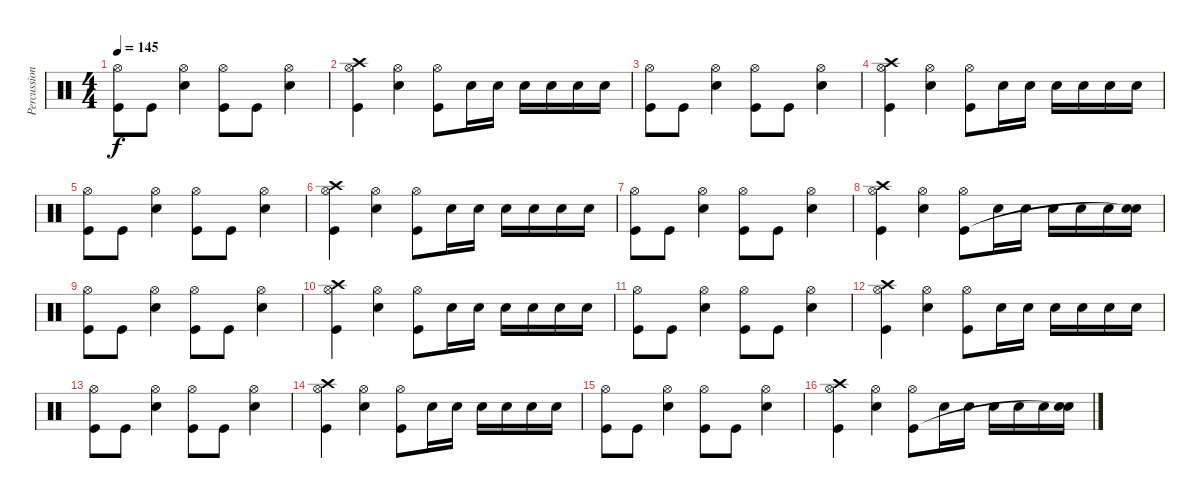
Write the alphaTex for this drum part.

\track ("Percussion" "Percussion") {instrument percussion}
\staff {score}
\articulation defaults
\ts (4 4)
\tempo 145
\clef neutral
\ks c
("Hi-Hat (open)" "Kick (hit)").8{dy f} "Kick (hit)".8 ("Hi-Hat (open)" "Snare (hit) 2").4 ("Hi-Hat (open)" "Kick (hit)").8 "Kick (hit)".8 ("Hi-Hat (open)" "Snare (hit) 2").4 |
("Kick (hit)" "Hi-Hat (open)" "Crash high (hit)").4 ("Hi-Hat (open)" "Snare (hit) 2").4 ("Hi-Hat (open)" "Kick (hit)").8 "Snare (hit) 2".16 "Snare (hit) 2".16 "Snare (hit) 2".16 "Snare (hit) 2".16 "Snare (hit) 2".16 "Snare (hit) 2".16 |
("Hi-Hat (open)" "Kick (hit)").8 "Kick (hit)".8 ("Hi-Hat (open)" "Snare (hit) 2").4 ("Hi-Hat (open)" "Kick (hit)").8 "Kick (hit)".8 ("Hi-Hat (open)" "Snare (hit) 2").4 |
("Kick (hit)" "Hi-Hat (open)" "Crash high (hit)").4 ("Hi-Hat (open)" "Snare (hit) 2").4 ("Hi-Hat (open)" "Kick (hit)").8 "Snare (hit) 2".16 "Snare (hit) 2".16 "Snare (hit) 2".16 "Snare (hit) 2".16 "Snare (hit) 2".16 "Snare (hit) 2".16 |
("Hi-Hat (open)" "Kick (hit)").8 "Kick (hit)".8 ("Hi-Hat (open)" "Snare (hit) 2").4 ("Hi-Hat (open)" "Kick (hit)").8 "Kick (hit)".8 ("Hi-Hat (open)" "Snare (hit) 2").4 |
("Kick (hit)" "Hi-Hat (open)" "Crash high (hit)").4 ("Hi-Hat (open)" "Snare (hit) 2").4 ("Hi-Hat (open)" "Kick (hit)").8 "Snare (hit) 2".16 "Snare (hit) 2".16 "Snare (hit) 2".16 "Snare (hit) 2".16 "Snare (hit) 2".16 "Snare (hit) 2".16 |
("Hi-Hat (open)" "Kick (hit)").8 "Kick (hit)".8 ("Hi-Hat (open)" "Snare (hit) 2").4 ("Hi-Hat (open)" "Kick (hit)").8 "Kick (hit)".8 ("Hi-Hat (open)" "Snare (hit) 2").4 |
("Kick (hit)" "Hi-Hat (open)" "Crash high (hit)").4 ("Hi-Hat (open)" "Snare (hit) 2").4 ("Hi-Hat (open)" "Kick (hit)").8 "Snare (hit) 2".16 "Snare (hit) 2".16 "Snare (hit) 2".16 "Snare (hit) 2".16 "Snare (hit) 2".16 ("Snare (hit) 2" "Snare (hit)"{t}).16 |
("Hi-Hat (open)" "Kick (hit)").8 "Kick (hit)".8 ("Hi-Hat (open)" "Snare (hit) 2").4 ("Hi-Hat (open)" "Kick (hit)").8 "Kick (hit)".8 ("Hi-Hat (open)" "Snare (hit) 2").4 |
("Kick (hit)" "Hi-Hat (open)" "Crash high (hit)").4 ("Hi-Hat (open)" "Snare (hit) 2").4 ("Hi-Hat (open)" "Kick (hit)").8 "Snare (hit) 2".16 "Snare (hit) 2".16 "Snare (hit) 2".16 "Snare (hit) 2".16 "Snare (hit) 2".16 "Snare (hit) 2".16 |
("Hi-Hat (open)" "Kick (hit)").8 "Kick (hit)".8 ("Hi-Hat (open)" "Snare (hit) 2").4 ("Hi-Hat (open)" "Kick (hit)").8 "Kick (hit)".8 ("Hi-Hat (open)" "Snare (hit) 2").4 |
("Kick (hit)" "Hi-Hat (open)" "Crash high (hit)").4 ("Hi-Hat (open)" "Snare (hit) 2").4 ("Hi-Hat (open)" "Kick (hit)").8 "Snare (hit) 2".16 "Snare (hit) 2".16 "Snare (hit) 2".16 "Snare (hit) 2".16 "Snare (hit) 2".16 "Snare (hit) 2".16 |
("Hi-Hat (open)" "Kick (hit)").8 "Kick (hit)".8 ("Hi-Hat (open)" "Snare (hit) 2").4 ("Hi-Hat (open)" "Kick (hit)").8 "Kick (hit)".8 ("Hi-Hat (open)" "Snare (hit) 2").4 |
("Kick (hit)" "Hi-Hat (open)" "Crash high (hit)").4 ("Hi-Hat (open)" "Snare (hit) 2").4 ("Hi-Hat (open)" "Kick (hit)").8 "Snare (hit) 2".16 "Snare (hit) 2".16 "Snare (hit) 2".16 "Snare (hit) 2".16 "Snare (hit) 2".16 "Snare (hit) 2".16 |
("Hi-Hat (open)" "Kick (hit)").8 "Kick (hit)".8 ("Hi-Hat (open)" "Snare (hit) 2").4 ("Hi-Hat (open)" "Kick (hit)").8 "Kick (hit)".8 ("Hi-Hat (open)" "Snare (hit) 2").4 |
("Kick (hit)" "Hi-Hat (open)" "Crash high (hit)").4 ("Hi-Hat (open)" "Snare (hit) 2").4 ("Hi-Hat (open)" "Kick (hit)").8 "Snare (hit) 2".16 "Snare (hit) 2".16 "Snare (hit) 2".16 "Snare (hit) 2".16 "Snare (hit) 2".16 ("Snare (hit) 2" "Snare (hit)"{t}).16
